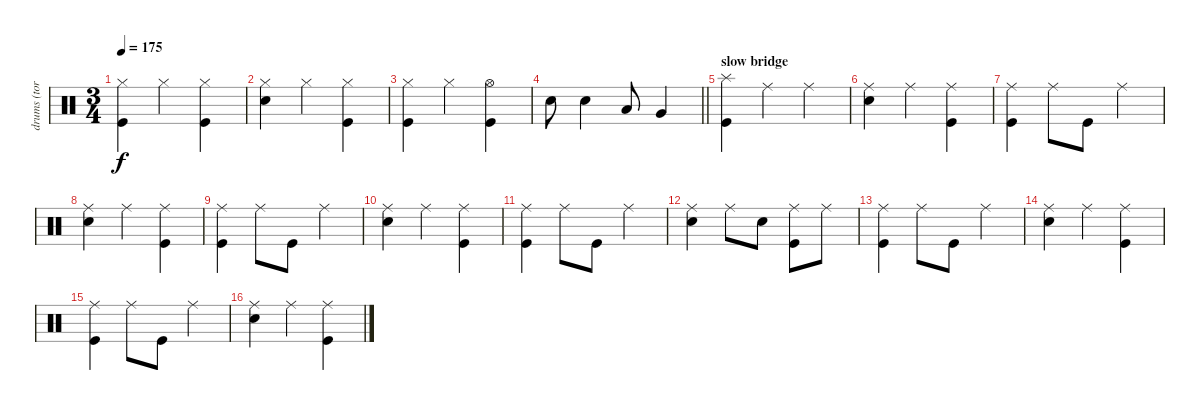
\track ("drums (tora)" "drums (tor") {instrument percussion}
\staff {score}
\articulation defaults
\ts (3 4)
\tempo 175
\clef neutral
\ks c
("Hi-Hat (closed)" "Kick (hit)").4{dy f} "Hi-Hat (closed)".4 ("Hi-Hat (closed)" "Kick (hit)").4 |
("Hi-Hat (closed)" "Snare (hit) 2").4 "Hi-Hat (closed)".4 ("Hi-Hat (closed)" "Kick (hit)").4 |
("Hi-Hat (closed)" "Kick (hit)").4 "Hi-Hat (closed)".4 ("Hi-Hat (open)" "Kick (hit)").4 |
\barLineRight lightlight "Snare (hit) 2".8 "Snare (hit) 2".4 "Low Tom (hit)".8 "Very Low Tom (hit)".4
|
\section ("" "slow bridge")
("Splash (hit)" "Kick (hit)").4 "Ride (middle)".4 "Ride (middle)".4 |
("Ride (middle)" "Snare (hit) 2").4 "Ride (middle)".4 ("Ride (middle)" "Kick (hit)").4 |
("Ride (middle)" "Kick (hit)").4 "Ride (middle)".8 "Kick (hit)".8 "Ride (middle)".4 |
("Ride (middle)" "Snare (hit) 2").4 "Ride (middle)".4 ("Ride (middle)" "Kick (hit)").4 |
("Ride (middle)" "Kick (hit)").4 "Ride (middle)".8 "Kick (hit)".8 "Ride (middle)".4 |
("Ride (middle)" "Snare (hit) 2").4 "Ride (middle)".4 ("Ride (middle)" "Kick (hit)").4 |
("Ride (middle)" "Kick (hit)").4 "Ride (middle)".8 "Kick (hit)".8 "Ride (middle)".4 |
("Ride (middle)" "Snare (hit) 2").4 "Ride (middle)".8 "Snare (hit) 2".8 ("Ride (middle)" "Kick (hit)").8 "Ride (middle)".8 |
("Ride (middle)" "Kick (hit)").4 "Ride (middle)".8 "Kick (hit)".8 "Ride (middle)".4 |
("Ride (middle)" "Snare (hit) 2").4 "Ride (middle)".4 ("Ride (middle)" "Kick (hit)").4 |
("Ride (middle)" "Kick (hit)").4 "Ride (middle)".8 "Kick (hit)".8 "Ride (middle)".4 |
("Ride (middle)" "Snare (hit) 2").4 "Ride (middle)".4 ("Ride (middle)" "Kick (hit)").4
